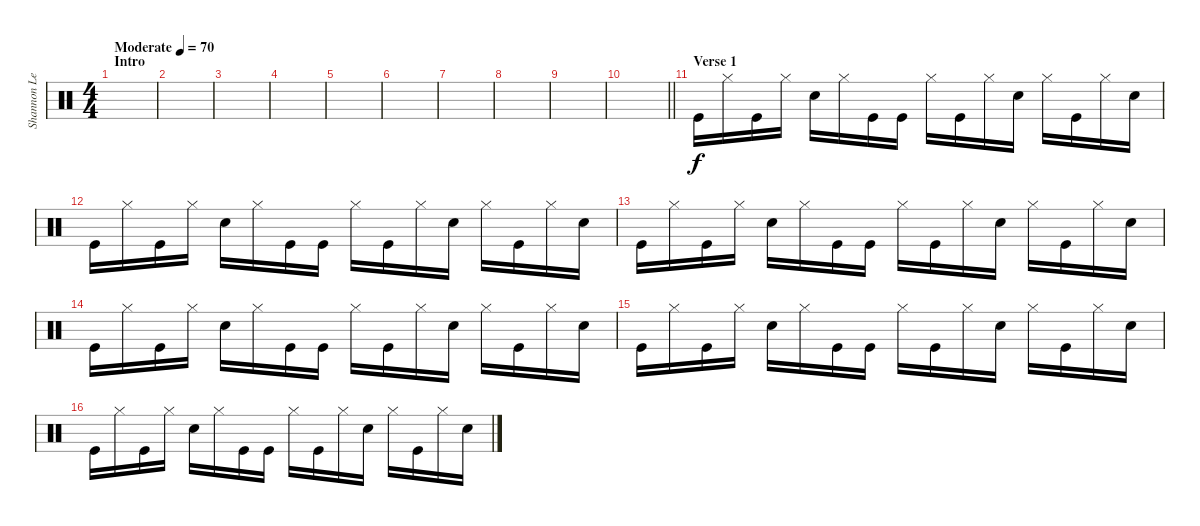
\track ("Shannon Leto (Drums)" "Shannon Le") {instrument percussion}
\staff {score}
\articulation defaults
\ts (4 4)
\section ("" "Intro")
\tempo (70 "Moderate")
\clef neutral
\ks c
|
|
|
|
|
|
|
|
|
\barLineRight lightlight
|
\section ("" "Verse 1")
"Kick (hit)".16 "Hi-Hat (closed)".16 "Kick (hit)".16 "Hi-Hat (closed)".16 "Snare (hit) 2".16 "Hi-Hat (closed)".16 "Kick (hit)".16 "Kick (hit)".16 "Hi-Hat (closed)".16 "Kick (hit)".16 "Hi-Hat (closed)".16 "Snare (hit) 2".16 "Hi-Hat (closed)".16 "Kick (hit)".16 "Hi-Hat (closed)".16 "Snare (hit) 2".16 |
"Kick (hit)".16 "Hi-Hat (closed)".16 "Kick (hit)".16 "Hi-Hat (closed)".16 "Snare (hit) 2".16 "Hi-Hat (closed)".16 "Kick (hit)".16 "Kick (hit)".16 "Hi-Hat (closed)".16 "Kick (hit)".16 "Hi-Hat (closed)".16 "Snare (hit) 2".16 "Hi-Hat (closed)".16 "Kick (hit)".16 "Hi-Hat (closed)".16 "Snare (hit) 2".16 |
"Kick (hit)".16 "Hi-Hat (closed)".16 "Kick (hit)".16 "Hi-Hat (closed)".16 "Snare (hit) 2".16 "Hi-Hat (closed)".16 "Kick (hit)".16 "Kick (hit)".16 "Hi-Hat (closed)".16 "Kick (hit)".16 "Hi-Hat (closed)".16 "Snare (hit) 2".16 "Hi-Hat (closed)".16 "Kick (hit)".16 "Hi-Hat (closed)".16 "Snare (hit) 2".16 |
"Kick (hit)".16 "Hi-Hat (closed)".16 "Kick (hit)".16 "Hi-Hat (closed)".16 "Snare (hit) 2".16 "Hi-Hat (closed)".16 "Kick (hit)".16 "Kick (hit)".16 "Hi-Hat (closed)".16 "Kick (hit)".16 "Hi-Hat (closed)".16 "Snare (hit) 2".16 "Hi-Hat (closed)".16 "Kick (hit)".16 "Hi-Hat (closed)".16 "Snare (hit) 2".16 |
"Kick (hit)".16 "Hi-Hat (closed)".16 "Kick (hit)".16 "Hi-Hat (closed)".16 "Snare (hit) 2".16 "Hi-Hat (closed)".16 "Kick (hit)".16 "Kick (hit)".16 "Hi-Hat (closed)".16 "Kick (hit)".16 "Hi-Hat (closed)".16 "Snare (hit) 2".16 "Hi-Hat (closed)".16 "Kick (hit)".16 "Hi-Hat (closed)".16 "Snare (hit) 2".16 |
"Kick (hit)".16 "Hi-Hat (closed)".16 "Kick (hit)".16 "Hi-Hat (closed)".16 "Snare (hit) 2".16 "Hi-Hat (closed)".16 "Kick (hit)".16 "Kick (hit)".16 "Hi-Hat (closed)".16 "Kick (hit)".16 "Hi-Hat (closed)".16 "Snare (hit) 2".16 "Hi-Hat (closed)".16 "Kick (hit)".16 "Hi-Hat (closed)".16 "Snare (hit) 2".16
